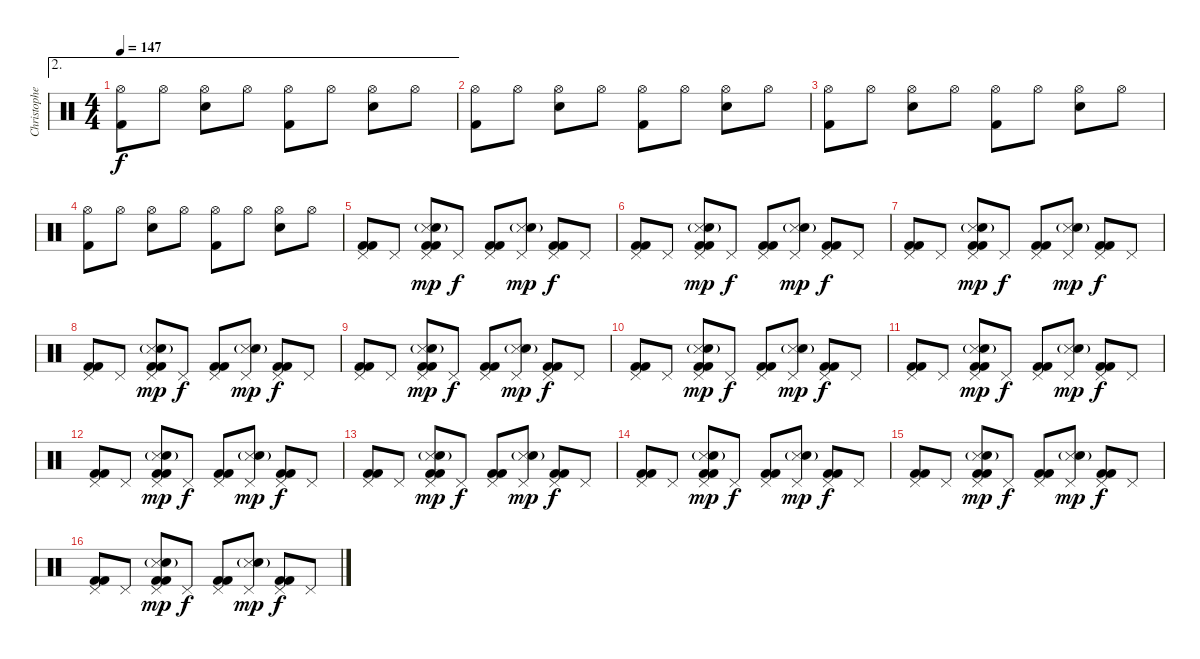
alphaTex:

\track ("Christopher Schneider  (Drums)" "Christophe") {instrument percussion}
\staff {score}
\articulation defaults
\ae 2
\ts (4 4)
\tempo 147
\clef neutral
\ks c
("Hi-Hat (open)" "Kick (hit) 2").8{dy f} "Hi-Hat (open)".8 ("Hi-Hat (open)" "Electric Snare (hit)").8 "Hi-Hat (open)".8 ("Hi-Hat (open)" "Kick (hit) 2").8 "Hi-Hat (open)".8 ("Hi-Hat (open)" "Electric Snare (hit)").8 "Hi-Hat (open)".8 |
("Hi-Hat (open)" "Kick (hit) 2").8 "Hi-Hat (open)".8 ("Hi-Hat (open)" "Electric Snare (hit)").8 "Hi-Hat (open)".8 ("Hi-Hat (open)" "Kick (hit) 2").8 "Hi-Hat (open)".8 ("Hi-Hat (open)" "Electric Snare (hit)").8 "Hi-Hat (open)".8 |
("Hi-Hat (open)" "Kick (hit) 2").8 "Hi-Hat (open)".8 ("Hi-Hat (open)" "Electric Snare (hit)").8 "Hi-Hat (open)".8 ("Hi-Hat (open)" "Kick (hit) 2").8 "Hi-Hat (open)".8 ("Hi-Hat (open)" "Electric Snare (hit)").8 "Hi-Hat (open)".8 |
("Hi-Hat (open)" "Kick (hit) 2").8 "Hi-Hat (open)".8 ("Hi-Hat (open)" "Electric Snare (hit)").8 "Hi-Hat (open)".8 ("Hi-Hat (open)" "Kick (hit) 2").8 "Hi-Hat (open)".8 ("Hi-Hat (open)" "Electric Snare (hit)").8 "Hi-Hat (open)".8 |
("Pedal Hi-Hat (hit)" "Kick (hit) 2" "Kick (hit) 2").8 "Pedal Hi-Hat (hit)".8 ("Pedal Hi-Hat (hit)" "Snare (side stick) 3" "Electric Snare (hit)"{g} "Kick (hit) 2" "Kick (hit) 2").8{dy mp} "Pedal Hi-Hat (hit)".8{dy f} ("Pedal Hi-Hat (hit)" "Kick (hit) 2" "Kick (hit) 2").8 ("Pedal Hi-Hat (hit)" "Snare (side stick) 3" "Electric Snare (hit)"{g}).8{dy mp} ("Pedal Hi-Hat (hit)" "Kick (hit) 2" "Kick (hit) 2").8{dy f} "Pedal Hi-Hat (hit)".8 |
("Pedal Hi-Hat (hit)" "Kick (hit) 2" "Kick (hit) 2").8 "Pedal Hi-Hat (hit)".8 ("Pedal Hi-Hat (hit)" "Snare (side stick) 3" "Electric Snare (hit)"{g} "Kick (hit) 2" "Kick (hit) 2").8{dy mp} "Pedal Hi-Hat (hit)".8{dy f} ("Pedal Hi-Hat (hit)" "Kick (hit) 2" "Kick (hit) 2").8 ("Pedal Hi-Hat (hit)" "Snare (side stick) 3" "Electric Snare (hit)"{g}).8{dy mp} ("Pedal Hi-Hat (hit)" "Kick (hit) 2" "Kick (hit) 2").8{dy f} "Pedal Hi-Hat (hit)".8 |
("Pedal Hi-Hat (hit)" "Kick (hit) 2" "Kick (hit) 2").8 "Pedal Hi-Hat (hit)".8 ("Pedal Hi-Hat (hit)" "Snare (side stick) 3" "Electric Snare (hit)"{g} "Kick (hit) 2" "Kick (hit) 2").8{dy mp} "Pedal Hi-Hat (hit)".8{dy f} ("Pedal Hi-Hat (hit)" "Kick (hit) 2" "Kick (hit) 2").8 ("Pedal Hi-Hat (hit)" "Snare (side stick) 3" "Electric Snare (hit)"{g}).8{dy mp} ("Pedal Hi-Hat (hit)" "Kick (hit) 2" "Kick (hit) 2").8{dy f} "Pedal Hi-Hat (hit)".8 |
("Pedal Hi-Hat (hit)" "Kick (hit) 2" "Kick (hit) 2").8 "Pedal Hi-Hat (hit)".8 ("Pedal Hi-Hat (hit)" "Snare (side stick) 3" "Electric Snare (hit)"{g} "Kick (hit) 2" "Kick (hit) 2").8{dy mp} "Pedal Hi-Hat (hit)".8{dy f} ("Pedal Hi-Hat (hit)" "Kick (hit) 2" "Kick (hit) 2").8 ("Pedal Hi-Hat (hit)" "Snare (side stick) 3" "Electric Snare (hit)"{g}).8{dy mp} ("Pedal Hi-Hat (hit)" "Kick (hit) 2" "Kick (hit) 2").8{dy f} "Pedal Hi-Hat (hit)".8 |
("Pedal Hi-Hat (hit)" "Kick (hit) 2" "Kick (hit) 2").8 "Pedal Hi-Hat (hit)".8 ("Pedal Hi-Hat (hit)" "Snare (side stick) 3" "Electric Snare (hit)"{g} "Kick (hit) 2" "Kick (hit) 2").8{dy mp} "Pedal Hi-Hat (hit)".8{dy f} ("Pedal Hi-Hat (hit)" "Kick (hit) 2" "Kick (hit) 2").8 ("Pedal Hi-Hat (hit)" "Snare (side stick) 3" "Electric Snare (hit)"{g}).8{dy mp} ("Pedal Hi-Hat (hit)" "Kick (hit) 2" "Kick (hit) 2").8{dy f} "Pedal Hi-Hat (hit)".8 |
("Pedal Hi-Hat (hit)" "Kick (hit) 2" "Kick (hit) 2").8 "Pedal Hi-Hat (hit)".8 ("Pedal Hi-Hat (hit)" "Snare (side stick) 3" "Electric Snare (hit)"{g} "Kick (hit) 2" "Kick (hit) 2").8{dy mp} "Pedal Hi-Hat (hit)".8{dy f} ("Pedal Hi-Hat (hit)" "Kick (hit) 2" "Kick (hit) 2").8 ("Pedal Hi-Hat (hit)" "Snare (side stick) 3" "Electric Snare (hit)"{g}).8{dy mp} ("Pedal Hi-Hat (hit)" "Kick (hit) 2" "Kick (hit) 2").8{dy f} "Pedal Hi-Hat (hit)".8 |
("Pedal Hi-Hat (hit)" "Kick (hit) 2" "Kick (hit) 2").8 "Pedal Hi-Hat (hit)".8 ("Pedal Hi-Hat (hit)" "Snare (side stick) 3" "Electric Snare (hit)"{g} "Kick (hit) 2" "Kick (hit) 2").8{dy mp} "Pedal Hi-Hat (hit)".8{dy f} ("Pedal Hi-Hat (hit)" "Kick (hit) 2" "Kick (hit) 2").8 ("Pedal Hi-Hat (hit)" "Snare (side stick) 3" "Electric Snare (hit)"{g}).8{dy mp} ("Pedal Hi-Hat (hit)" "Kick (hit) 2" "Kick (hit) 2").8{dy f} "Pedal Hi-Hat (hit)".8 |
("Pedal Hi-Hat (hit)" "Kick (hit) 2" "Kick (hit) 2").8 "Pedal Hi-Hat (hit)".8 ("Pedal Hi-Hat (hit)" "Snare (side stick) 3" "Electric Snare (hit)"{g} "Kick (hit) 2" "Kick (hit) 2").8{dy mp} "Pedal Hi-Hat (hit)".8{dy f} ("Pedal Hi-Hat (hit)" "Kick (hit) 2" "Kick (hit) 2").8 ("Pedal Hi-Hat (hit)" "Snare (side stick) 3" "Electric Snare (hit)"{g}).8{dy mp} ("Pedal Hi-Hat (hit)" "Kick (hit) 2" "Kick (hit) 2").8{dy f} "Pedal Hi-Hat (hit)".8 |
("Pedal Hi-Hat (hit)" "Kick (hit) 2" "Kick (hit) 2").8 "Pedal Hi-Hat (hit)".8 ("Pedal Hi-Hat (hit)" "Snare (side stick) 3" "Electric Snare (hit)"{g} "Kick (hit) 2" "Kick (hit) 2").8{dy mp} "Pedal Hi-Hat (hit)".8{dy f} ("Pedal Hi-Hat (hit)" "Kick (hit) 2" "Kick (hit) 2").8 ("Pedal Hi-Hat (hit)" "Snare (side stick) 3" "Electric Snare (hit)"{g}).8{dy mp} ("Pedal Hi-Hat (hit)" "Kick (hit) 2" "Kick (hit) 2").8{dy f} "Pedal Hi-Hat (hit)".8 |
("Pedal Hi-Hat (hit)" "Kick (hit) 2" "Kick (hit) 2").8 "Pedal Hi-Hat (hit)".8 ("Pedal Hi-Hat (hit)" "Snare (side stick) 3" "Electric Snare (hit)"{g} "Kick (hit) 2" "Kick (hit) 2").8{dy mp} "Pedal Hi-Hat (hit)".8{dy f} ("Pedal Hi-Hat (hit)" "Kick (hit) 2" "Kick (hit) 2").8 ("Pedal Hi-Hat (hit)" "Snare (side stick) 3" "Electric Snare (hit)"{g}).8{dy mp} ("Pedal Hi-Hat (hit)" "Kick (hit) 2" "Kick (hit) 2").8{dy f} "Pedal Hi-Hat (hit)".8 |
("Pedal Hi-Hat (hit)" "Kick (hit) 2" "Kick (hit) 2").8 "Pedal Hi-Hat (hit)".8 ("Pedal Hi-Hat (hit)" "Snare (side stick) 3" "Electric Snare (hit)"{g} "Kick (hit) 2" "Kick (hit) 2").8{dy mp} "Pedal Hi-Hat (hit)".8{dy f} ("Pedal Hi-Hat (hit)" "Kick (hit) 2" "Kick (hit) 2").8 ("Pedal Hi-Hat (hit)" "Snare (side stick) 3" "Electric Snare (hit)"{g}).8{dy mp} ("Pedal Hi-Hat (hit)" "Kick (hit) 2" "Kick (hit) 2").8{dy f} "Pedal Hi-Hat (hit)".8 |
("Pedal Hi-Hat (hit)" "Kick (hit) 2" "Kick (hit) 2").8 "Pedal Hi-Hat (hit)".8 ("Pedal Hi-Hat (hit)" "Snare (side stick) 3" "Electric Snare (hit)"{g} "Kick (hit) 2" "Kick (hit) 2").8{dy mp} "Pedal Hi-Hat (hit)".8{dy f} ("Pedal Hi-Hat (hit)" "Kick (hit) 2" "Kick (hit) 2").8 ("Pedal Hi-Hat (hit)" "Snare (side stick) 3" "Electric Snare (hit)"{g}).8{dy mp} ("Pedal Hi-Hat (hit)" "Kick (hit) 2" "Kick (hit) 2").8{dy f} "Pedal Hi-Hat (hit)".8
